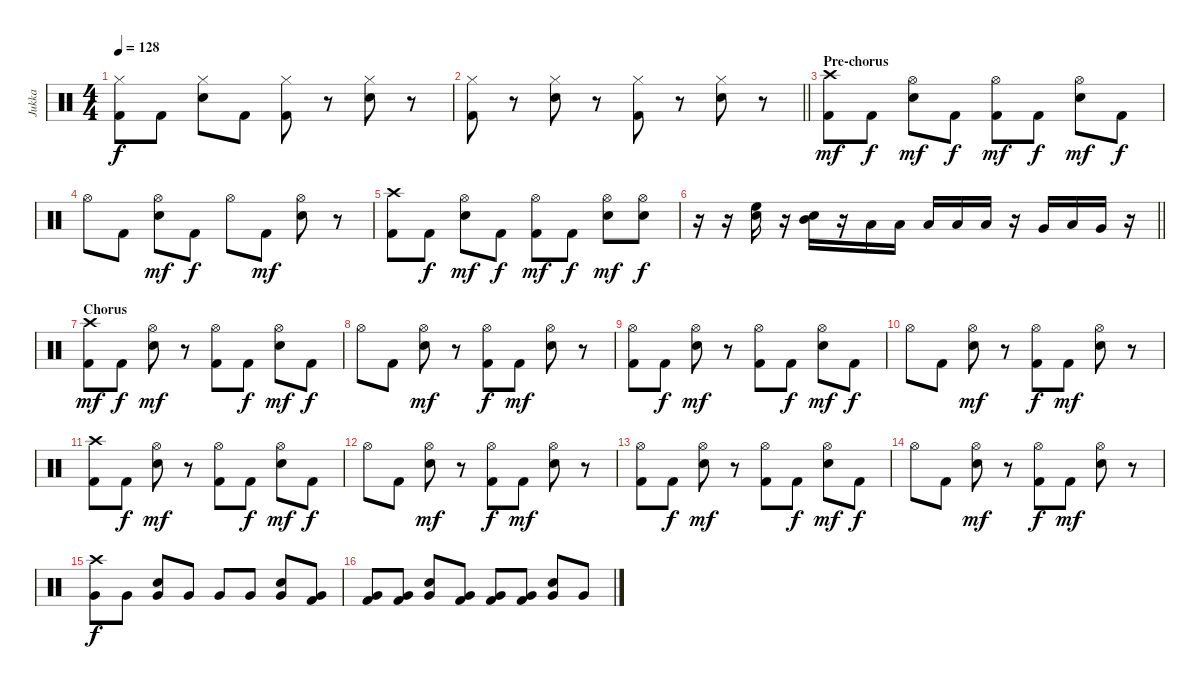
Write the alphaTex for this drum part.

\track ("Jukka" "Jukka") {instrument percussion}
\staff {score}
\articulation defaults
\ts (4 4)
\tempo 128
\clef neutral
\ks c
("Kick (hit) 2" "Hi-Hat (closed)").8{dy f} "Kick (hit) 2".8 ("Electric Snare (hit)" "Hi-Hat (closed)").8 "Kick (hit) 2".8 ("Kick (hit) 2" "Hi-Hat (closed)").8 r.8 ("Electric Snare (hit)" "Hi-Hat (closed)").8 r.8 |
\barLineRight lightlight
("Kick (hit) 2" "Hi-Hat (closed)").8 r.8 ("Electric Snare (hit)" "Hi-Hat (closed)").8 r.8 ("Kick (hit) 2" "Hi-Hat (closed)").8 r.8 ("Electric Snare (hit)" "Hi-Hat (closed)").8 r.8 |
\section ("" "Pre-chorus")
("Kick (hit) 2" "Crash high (hit)").8{dy mf} "Kick (hit) 2".8{dy f} ("Electric Snare (hit)" "Hi-Hat (open)").8{dy mf} "Kick (hit) 2".8{dy f} ("Kick (hit) 2" "Hi-Hat (open)").8{dy mf} "Kick (hit) 2".8{dy f} ("Electric Snare (hit)" "Hi-Hat (open)").8{dy mf} "Kick (hit) 2".8{dy f} |
"Hi-Hat (open)".8 "Kick (hit) 2".8 ("Electric Snare (hit)" "Hi-Hat (open)").8{dy mf} "Kick (hit) 2".8{dy f} "Hi-Hat (open)".8 "Kick (hit) 2".8{dy mf} ("Electric Snare (hit)" "Hi-Hat (open)").8 r.8 |
("Kick (hit) 2" "Crash high (hit)").8 "Kick (hit) 2".8{dy f} ("Electric Snare (hit)" "Hi-Hat (open)").8{dy mf} "Kick (hit) 2".8{dy f} ("Kick (hit) 2" "Hi-Hat (open)").8{dy mf} "Kick (hit) 2".8{dy f} ("Electric Snare (hit)" "Hi-Hat (open)").8{dy mf} ("Electric Snare (hit)" "Hi-Hat (open)").8{dy f} |
\barLineRight lightlight
r.16 r.16 ("Electric Snare (hit)" "High Floor Tom (hit)").16 r.16 ("Electric Snare (hit)" "Mid Tom (hit)").16 r.16 "Low Tom (hit)".16 "Low Tom (hit)".16 "Low Tom (hit)".16 "Low Tom (hit)".16 "Low Tom (hit)".16 r.16 "Very Low Tom (hit)".16 "Low Floor Tom (hit)".16 "Very Low Tom (hit)".16 r.16 |
\section ("" "Chorus")
("Kick (hit) 2" "Crash high (hit)").8{dy mf} "Kick (hit) 2".8{dy f} ("Electric Snare (hit)" "Hi-Hat (open)").8{dy mf} r.8 ("Kick (hit) 2" "Hi-Hat (open)").8 "Kick (hit) 2".8{dy f} ("Electric Snare (hit)" "Hi-Hat (open)").8{dy mf} "Kick (hit) 2".8{dy f} |
"Hi-Hat (open)".8 "Kick (hit) 2".8 ("Electric Snare (hit)" "Hi-Hat (open)").8{dy mf} r.8 ("Kick (hit) 2" "Hi-Hat (open)").8{dy f} "Kick (hit) 2".8{dy mf} ("Electric Snare (hit)" "Hi-Hat (open)").8 r.8 |
("Kick (hit) 2" "Hi-Hat (open)").8 "Kick (hit) 2".8{dy f} ("Electric Snare (hit)" "Hi-Hat (open)").8{dy mf} r.8 ("Kick (hit) 2" "Hi-Hat (open)").8 "Kick (hit) 2".8{dy f} ("Electric Snare (hit)" "Hi-Hat (open)").8{dy mf} "Kick (hit) 2".8{dy f} |
"Hi-Hat (open)".8 "Kick (hit) 2".8 ("Electric Snare (hit)" "Hi-Hat (open)").8{dy mf} r.8 ("Kick (hit) 2" "Hi-Hat (open)").8{dy f} "Kick (hit) 2".8{dy mf} ("Electric Snare (hit)" "Hi-Hat (open)").8 r.8 |
("Kick (hit) 2" "Crash high (hit)").8 "Kick (hit) 2".8{dy f} ("Electric Snare (hit)" "Hi-Hat (open)").8{dy mf} r.8 ("Kick (hit) 2" "Hi-Hat (open)").8 "Kick (hit) 2".8{dy f} ("Electric Snare (hit)" "Hi-Hat (open)").8{dy mf} "Kick (hit) 2".8{dy f} |
"Hi-Hat (open)".8 "Kick (hit) 2".8 ("Electric Snare (hit)" "Hi-Hat (open)").8{dy mf} r.8 ("Kick (hit) 2" "Hi-Hat (open)").8{dy f} "Kick (hit) 2".8{dy mf} ("Electric Snare (hit)" "Hi-Hat (open)").8 r.8 |
("Kick (hit) 2" "Hi-Hat (open)").8 "Kick (hit) 2".8{dy f} ("Electric Snare (hit)" "Hi-Hat (open)").8{dy mf} r.8 ("Kick (hit) 2" "Hi-Hat (open)").8 "Kick (hit) 2".8{dy f} ("Electric Snare (hit)" "Hi-Hat (open)").8{dy mf} "Kick (hit) 2".8{dy f} |
"Hi-Hat (open)".8 "Kick (hit) 2".8 ("Electric Snare (hit)" "Hi-Hat (open)").8{dy mf} r.8 ("Kick (hit) 2" "Hi-Hat (open)").8{dy f} "Kick (hit) 2".8{dy mf} ("Electric Snare (hit)" "Hi-Hat (open)").8 r.8 |
("Crash high (hit)" "Very Low Tom (hit)").8{dy f} "Very Low Tom (hit)".8 ("Electric Snare (hit)" "Very Low Tom (hit)").8 "Very Low Tom (hit)".8 "Very Low Tom (hit)".8 "Very Low Tom (hit)".8 ("Electric Snare (hit)" "Very Low Tom (hit)").8 ("Very Low Tom (hit)" "Kick (hit) 2").8 |
("Very Low Tom (hit)" "Kick (hit) 2").8 ("Very Low Tom (hit)" "Kick (hit) 2").8 ("Electric Snare (hit)" "Very Low Tom (hit)").8 ("Very Low Tom (hit)" "Kick (hit) 2").8 ("Very Low Tom (hit)" "Kick (hit) 2").8 ("Very Low Tom (hit)" "Kick (hit) 2").8 ("Electric Snare (hit)" "Very Low Tom (hit)").8 "Very Low Tom (hit)".8
